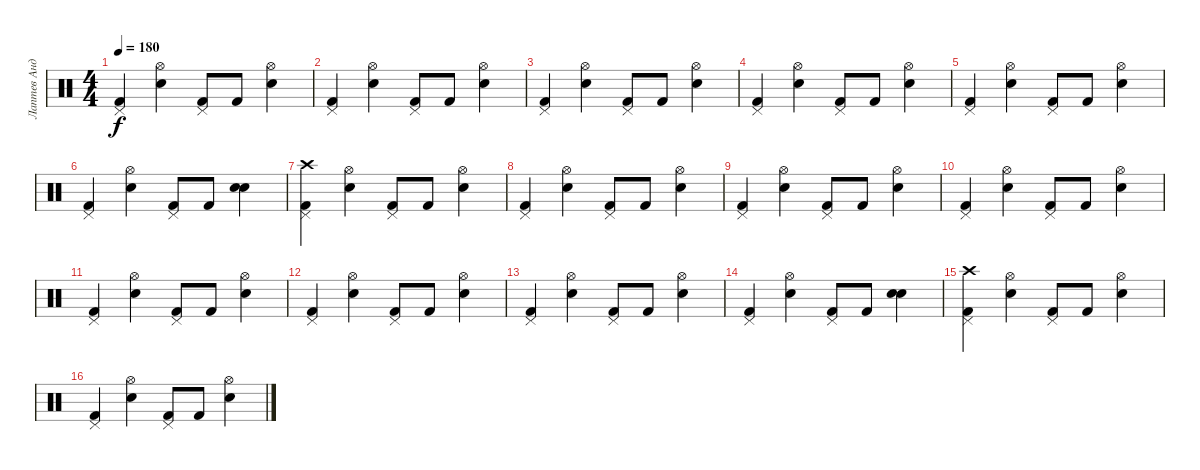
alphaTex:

\track ("Лаптев Андрей" "Лаптев Анд") {instrument percussion}
\staff {score}
\articulation defaults
\ts (4 4)
\tempo 180
\clef neutral
\ks c
("Kick (hit) 2" "Pedal Hi-Hat (hit)").4{dy f} ("Snare (hit) 2" "Hi-Hat (open)").4 ("Kick (hit) 2" "Pedal Hi-Hat (hit)").8 "Kick (hit) 2".8 ("Snare (hit) 2" "Hi-Hat (open)").4 |
("Kick (hit) 2" "Pedal Hi-Hat (hit)").4 ("Snare (hit) 2" "Hi-Hat (open)").4 ("Kick (hit) 2" "Pedal Hi-Hat (hit)").8 "Kick (hit) 2".8 ("Snare (hit) 2" "Hi-Hat (open)").4 |
("Kick (hit) 2" "Pedal Hi-Hat (hit)").4 ("Snare (hit) 2" "Hi-Hat (open)").4 ("Kick (hit) 2" "Pedal Hi-Hat (hit)").8 "Kick (hit) 2".8 ("Snare (hit) 2" "Hi-Hat (open)").4 |
("Kick (hit) 2" "Pedal Hi-Hat (hit)").4 ("Snare (hit) 2" "Hi-Hat (open)").4 ("Kick (hit) 2" "Pedal Hi-Hat (hit)").8 "Kick (hit) 2".8 ("Snare (hit) 2" "Hi-Hat (open)").4 |
("Kick (hit) 2" "Pedal Hi-Hat (hit)").4 ("Snare (hit) 2" "Hi-Hat (open)").4 ("Kick (hit) 2" "Pedal Hi-Hat (hit)").8 "Kick (hit) 2".8 ("Snare (hit) 2" "Hi-Hat (open)").4 |
("Kick (hit) 2" "Pedal Hi-Hat (hit)").4 ("Snare (hit) 2" "Hi-Hat (open)").4 ("Kick (hit) 2" "Pedal Hi-Hat (hit)").8 "Kick (hit) 2".8 ("Snare (hit) 2" "Electric Snare (hit)").4 |
("Kick (hit) 2" "Crash high (hit)" "Pedal Hi-Hat (hit)").4 ("Snare (hit) 2" "Hi-Hat (open)").4 ("Kick (hit) 2" "Pedal Hi-Hat (hit)").8 "Kick (hit) 2".8 ("Snare (hit) 2" "Hi-Hat (open)").4 |
("Kick (hit) 2" "Pedal Hi-Hat (hit)").4 ("Snare (hit) 2" "Hi-Hat (open)").4 ("Kick (hit) 2" "Pedal Hi-Hat (hit)").8 "Kick (hit) 2".8 ("Snare (hit) 2" "Hi-Hat (open)").4 |
("Kick (hit) 2" "Pedal Hi-Hat (hit)").4 ("Snare (hit) 2" "Hi-Hat (open)").4 ("Kick (hit) 2" "Pedal Hi-Hat (hit)").8 "Kick (hit) 2".8 ("Snare (hit) 2" "Hi-Hat (open)").4 |
("Kick (hit) 2" "Pedal Hi-Hat (hit)").4 ("Snare (hit) 2" "Hi-Hat (open)").4 ("Kick (hit) 2" "Pedal Hi-Hat (hit)").8 "Kick (hit) 2".8 ("Snare (hit) 2" "Hi-Hat (open)").4 |
("Kick (hit) 2" "Pedal Hi-Hat (hit)").4 ("Snare (hit) 2" "Hi-Hat (open)").4 ("Kick (hit) 2" "Pedal Hi-Hat (hit)").8 "Kick (hit) 2".8 ("Snare (hit) 2" "Hi-Hat (open)").4 |
("Kick (hit) 2" "Pedal Hi-Hat (hit)").4 ("Snare (hit) 2" "Hi-Hat (open)").4 ("Kick (hit) 2" "Pedal Hi-Hat (hit)").8 "Kick (hit) 2".8 ("Snare (hit) 2" "Hi-Hat (open)").4 |
("Kick (hit) 2" "Pedal Hi-Hat (hit)").4 ("Snare (hit) 2" "Hi-Hat (open)").4 ("Kick (hit) 2" "Pedal Hi-Hat (hit)").8 "Kick (hit) 2".8 ("Snare (hit) 2" "Hi-Hat (open)").4 |
("Kick (hit) 2" "Pedal Hi-Hat (hit)").4 ("Snare (hit) 2" "Hi-Hat (open)").4 ("Kick (hit) 2" "Pedal Hi-Hat (hit)").8 "Kick (hit) 2".8 ("Snare (hit) 2" "Electric Snare (hit)").4 |
("Kick (hit) 2" "Crash high (hit)" "Pedal Hi-Hat (hit)").4 ("Snare (hit) 2" "Hi-Hat (open)").4 ("Kick (hit) 2" "Pedal Hi-Hat (hit)").8 "Kick (hit) 2".8 ("Snare (hit) 2" "Hi-Hat (open)").4 |
("Kick (hit) 2" "Pedal Hi-Hat (hit)").4 ("Snare (hit) 2" "Hi-Hat (open)").4 ("Kick (hit) 2" "Pedal Hi-Hat (hit)").8 "Kick (hit) 2".8 ("Snare (hit) 2" "Hi-Hat (open)").4
